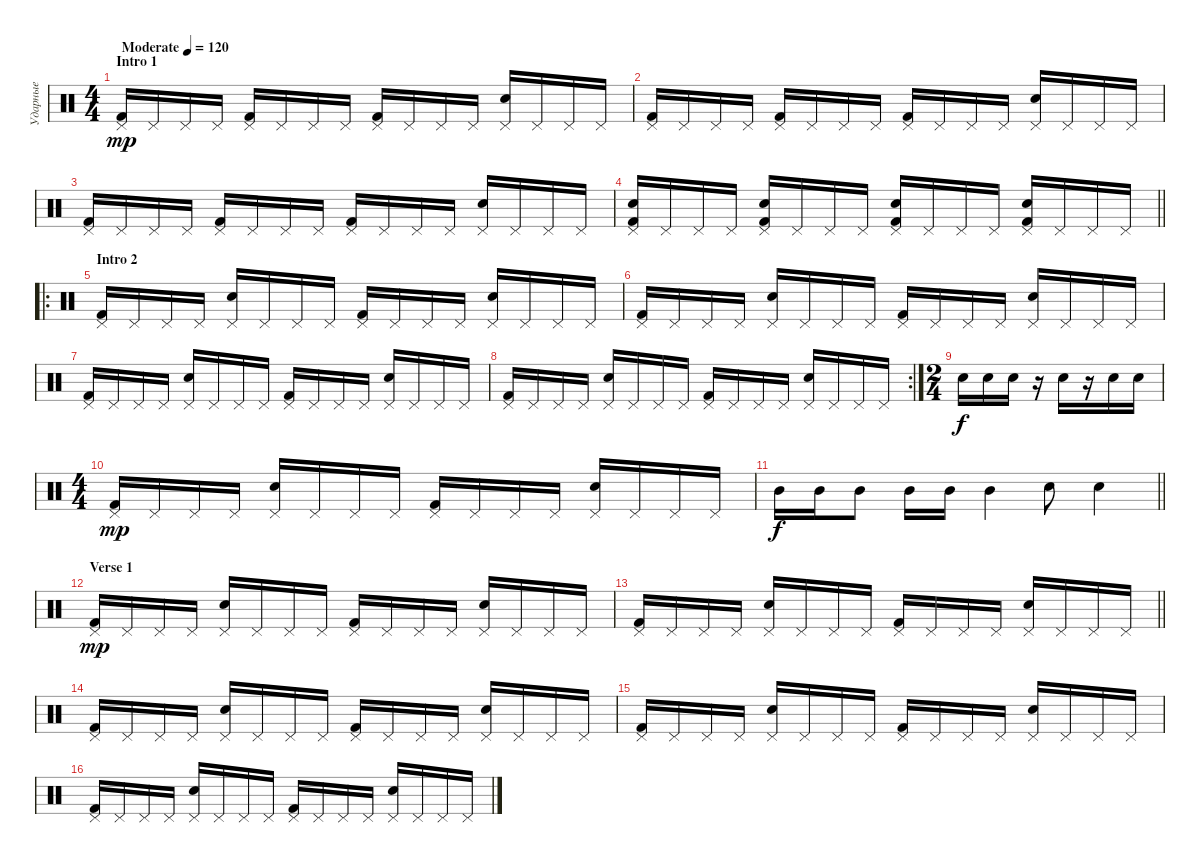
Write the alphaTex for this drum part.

\track ("Ударные" "Ударные") {instrument percussion}
\staff {score}
\articulation defaults
\ts (4 4)
\section ("" "Intro 1")
\tempo (120 "Moderate")
\clef neutral
\ks c
("Pedal Hi-Hat (hit)" "Kick (hit) 2").16{dy mp} "Pedal Hi-Hat (hit)".16 "Pedal Hi-Hat (hit)".16 "Pedal Hi-Hat (hit)".16 ("Pedal Hi-Hat (hit)" "Kick (hit) 2").16 "Pedal Hi-Hat (hit)".16 "Pedal Hi-Hat (hit)".16 "Pedal Hi-Hat (hit)".16 ("Pedal Hi-Hat (hit)" "Kick (hit) 2").16 "Pedal Hi-Hat (hit)".16 "Pedal Hi-Hat (hit)".16 "Pedal Hi-Hat (hit)".16 ("Pedal Hi-Hat (hit)" "Snare (hit) 2").16 "Pedal Hi-Hat (hit)".16 "Pedal Hi-Hat (hit)".16 "Pedal Hi-Hat (hit)".16 |
("Pedal Hi-Hat (hit)" "Kick (hit) 2").16 "Pedal Hi-Hat (hit)".16 "Pedal Hi-Hat (hit)".16 "Pedal Hi-Hat (hit)".16 ("Pedal Hi-Hat (hit)" "Kick (hit) 2").16 "Pedal Hi-Hat (hit)".16 "Pedal Hi-Hat (hit)".16 "Pedal Hi-Hat (hit)".16 ("Pedal Hi-Hat (hit)" "Kick (hit) 2").16 "Pedal Hi-Hat (hit)".16 "Pedal Hi-Hat (hit)".16 "Pedal Hi-Hat (hit)".16 ("Pedal Hi-Hat (hit)" "Snare (hit) 2").16 "Pedal Hi-Hat (hit)".16 "Pedal Hi-Hat (hit)".16 "Pedal Hi-Hat (hit)".16 |
("Pedal Hi-Hat (hit)" "Kick (hit) 2").16 "Pedal Hi-Hat (hit)".16 "Pedal Hi-Hat (hit)".16 "Pedal Hi-Hat (hit)".16 ("Pedal Hi-Hat (hit)" "Kick (hit) 2").16 "Pedal Hi-Hat (hit)".16 "Pedal Hi-Hat (hit)".16 "Pedal Hi-Hat (hit)".16 ("Pedal Hi-Hat (hit)" "Kick (hit) 2").16 "Pedal Hi-Hat (hit)".16 "Pedal Hi-Hat (hit)".16 "Pedal Hi-Hat (hit)".16 ("Pedal Hi-Hat (hit)" "Snare (hit) 2").16 "Pedal Hi-Hat (hit)".16 "Pedal Hi-Hat (hit)".16 "Pedal Hi-Hat (hit)".16 |
\barLineRight lightlight
("Pedal Hi-Hat (hit)" "Snare (hit) 2" "Kick (hit) 2").16 "Pedal Hi-Hat (hit)".16 "Pedal Hi-Hat (hit)".16 "Pedal Hi-Hat (hit)".16 ("Pedal Hi-Hat (hit)" "Snare (hit) 2" "Kick (hit) 2").16 "Pedal Hi-Hat (hit)".16 "Pedal Hi-Hat (hit)".16 "Pedal Hi-Hat (hit)".16 ("Pedal Hi-Hat (hit)" "Snare (hit) 2" "Kick (hit) 2").16 "Pedal Hi-Hat (hit)".16 "Pedal Hi-Hat (hit)".16 "Pedal Hi-Hat (hit)".16 ("Pedal Hi-Hat (hit)" "Snare (hit) 2" "Kick (hit) 2").16 "Pedal Hi-Hat (hit)".16 "Pedal Hi-Hat (hit)".16 "Pedal Hi-Hat (hit)".16 |
\ro
\section ("" "Intro 2")
("Pedal Hi-Hat (hit)" "Kick (hit) 2").16 "Pedal Hi-Hat (hit)".16 "Pedal Hi-Hat (hit)".16 "Pedal Hi-Hat (hit)".16 ("Pedal Hi-Hat (hit)" "Snare (hit) 2").16 "Pedal Hi-Hat (hit)".16 "Pedal Hi-Hat (hit)".16 "Pedal Hi-Hat (hit)".16 ("Pedal Hi-Hat (hit)" "Kick (hit) 2").16 "Pedal Hi-Hat (hit)".16 "Pedal Hi-Hat (hit)".16 "Pedal Hi-Hat (hit)".16 ("Pedal Hi-Hat (hit)" "Snare (hit) 2").16 "Pedal Hi-Hat (hit)".16 "Pedal Hi-Hat (hit)".16 "Pedal Hi-Hat (hit)".16 |
("Pedal Hi-Hat (hit)" "Kick (hit) 2").16 "Pedal Hi-Hat (hit)".16 "Pedal Hi-Hat (hit)".16 "Pedal Hi-Hat (hit)".16 ("Pedal Hi-Hat (hit)" "Snare (hit) 2").16 "Pedal Hi-Hat (hit)".16 "Pedal Hi-Hat (hit)".16 "Pedal Hi-Hat (hit)".16 ("Pedal Hi-Hat (hit)" "Kick (hit) 2").16 "Pedal Hi-Hat (hit)".16 "Pedal Hi-Hat (hit)".16 "Pedal Hi-Hat (hit)".16 ("Pedal Hi-Hat (hit)" "Snare (hit) 2").16 "Pedal Hi-Hat (hit)".16 "Pedal Hi-Hat (hit)".16 "Pedal Hi-Hat (hit)".16 |
("Pedal Hi-Hat (hit)" "Kick (hit) 2").16 "Pedal Hi-Hat (hit)".16 "Pedal Hi-Hat (hit)".16 "Pedal Hi-Hat (hit)".16 ("Pedal Hi-Hat (hit)" "Snare (hit) 2").16 "Pedal Hi-Hat (hit)".16 "Pedal Hi-Hat (hit)".16 "Pedal Hi-Hat (hit)".16 ("Pedal Hi-Hat (hit)" "Kick (hit) 2").16 "Pedal Hi-Hat (hit)".16 "Pedal Hi-Hat (hit)".16 "Pedal Hi-Hat (hit)".16 ("Pedal Hi-Hat (hit)" "Snare (hit) 2").16 "Pedal Hi-Hat (hit)".16 "Pedal Hi-Hat (hit)".16 "Pedal Hi-Hat (hit)".16 |
\rc 2
("Pedal Hi-Hat (hit)" "Kick (hit) 2").16 "Pedal Hi-Hat (hit)".16 "Pedal Hi-Hat (hit)".16 "Pedal Hi-Hat (hit)".16 ("Pedal Hi-Hat (hit)" "Snare (hit) 2").16 "Pedal Hi-Hat (hit)".16 "Pedal Hi-Hat (hit)".16 "Pedal Hi-Hat (hit)".16 ("Pedal Hi-Hat (hit)" "Kick (hit) 2").16 "Pedal Hi-Hat (hit)".16 "Pedal Hi-Hat (hit)".16 "Pedal Hi-Hat (hit)".16 ("Pedal Hi-Hat (hit)" "Snare (hit) 2").16 "Pedal Hi-Hat (hit)".16 "Pedal Hi-Hat (hit)".16 "Pedal Hi-Hat (hit)".16 |
\ts (2 4)
"Snare (hit) 2".16{dy f} "Snare (hit) 2".16 "Snare (hit) 2".16 r.16 "Snare (hit) 2".16 r.16 "Snare (hit) 2".16 "Snare (hit) 2".16 |
\ts (4 4)
("Pedal Hi-Hat (hit)" "Kick (hit) 2").16{dy mp} "Pedal Hi-Hat (hit)".16 "Pedal Hi-Hat (hit)".16 "Pedal Hi-Hat (hit)".16 ("Pedal Hi-Hat (hit)" "Snare (hit) 2").16 "Pedal Hi-Hat (hit)".16 "Pedal Hi-Hat (hit)".16 "Pedal Hi-Hat (hit)".16 ("Pedal Hi-Hat (hit)" "Kick (hit) 2").16 "Pedal Hi-Hat (hit)".16 "Pedal Hi-Hat (hit)".16 "Pedal Hi-Hat (hit)".16 ("Pedal Hi-Hat (hit)" "Snare (hit) 2").16 "Pedal Hi-Hat (hit)".16 "Pedal Hi-Hat (hit)".16 "Pedal Hi-Hat (hit)".16 |
\barLineRight lightlight "Mid Tom (hit)".16{dy f} "Mid Tom (hit)".16 "Mid Tom (hit)".8 "Mid Tom (hit)".16 "Mid Tom (hit)".16 "Mid Tom (hit)".4 "Snare (hit) 2".8 "Snare (hit) 2".4
|
\section ("" "Verse 1")
("Pedal Hi-Hat (hit)" "Kick (hit) 2").16{dy mp} "Pedal Hi-Hat (hit)".16 "Pedal Hi-Hat (hit)".16 "Pedal Hi-Hat (hit)".16 ("Pedal Hi-Hat (hit)" "Snare (hit) 2").16 "Pedal Hi-Hat (hit)".16 "Pedal Hi-Hat (hit)".16 "Pedal Hi-Hat (hit)".16 ("Pedal Hi-Hat (hit)" "Kick (hit) 2").16 "Pedal Hi-Hat (hit)".16 "Pedal Hi-Hat (hit)".16 "Pedal Hi-Hat (hit)".16 ("Pedal Hi-Hat (hit)" "Snare (hit) 2").16 "Pedal Hi-Hat (hit)".16 "Pedal Hi-Hat (hit)".16 "Pedal Hi-Hat (hit)".16 |
\barLineRight lightlight
("Pedal Hi-Hat (hit)" "Kick (hit) 2").16 "Pedal Hi-Hat (hit)".16 "Pedal Hi-Hat (hit)".16 "Pedal Hi-Hat (hit)".16 ("Pedal Hi-Hat (hit)" "Snare (hit) 2").16 "Pedal Hi-Hat (hit)".16 "Pedal Hi-Hat (hit)".16 "Pedal Hi-Hat (hit)".16 ("Pedal Hi-Hat (hit)" "Kick (hit) 2").16 "Pedal Hi-Hat (hit)".16 "Pedal Hi-Hat (hit)".16 "Pedal Hi-Hat (hit)".16 ("Pedal Hi-Hat (hit)" "Snare (hit) 2").16 "Pedal Hi-Hat (hit)".16 "Pedal Hi-Hat (hit)".16 "Pedal Hi-Hat (hit)".16 |
("Pedal Hi-Hat (hit)" "Kick (hit) 2").16 "Pedal Hi-Hat (hit)".16 "Pedal Hi-Hat (hit)".16 "Pedal Hi-Hat (hit)".16 ("Pedal Hi-Hat (hit)" "Snare (hit) 2").16 "Pedal Hi-Hat (hit)".16 "Pedal Hi-Hat (hit)".16 "Pedal Hi-Hat (hit)".16 ("Pedal Hi-Hat (hit)" "Kick (hit) 2").16 "Pedal Hi-Hat (hit)".16 "Pedal Hi-Hat (hit)".16 "Pedal Hi-Hat (hit)".16 ("Pedal Hi-Hat (hit)" "Snare (hit) 2").16 "Pedal Hi-Hat (hit)".16 "Pedal Hi-Hat (hit)".16 "Pedal Hi-Hat (hit)".16 |
("Pedal Hi-Hat (hit)" "Kick (hit) 2").16 "Pedal Hi-Hat (hit)".16 "Pedal Hi-Hat (hit)".16 "Pedal Hi-Hat (hit)".16 ("Pedal Hi-Hat (hit)" "Snare (hit) 2").16 "Pedal Hi-Hat (hit)".16 "Pedal Hi-Hat (hit)".16 "Pedal Hi-Hat (hit)".16 ("Pedal Hi-Hat (hit)" "Kick (hit) 2").16 "Pedal Hi-Hat (hit)".16 "Pedal Hi-Hat (hit)".16 "Pedal Hi-Hat (hit)".16 ("Pedal Hi-Hat (hit)" "Snare (hit) 2").16 "Pedal Hi-Hat (hit)".16 "Pedal Hi-Hat (hit)".16 "Pedal Hi-Hat (hit)".16 |
("Pedal Hi-Hat (hit)" "Kick (hit) 2").16 "Pedal Hi-Hat (hit)".16 "Pedal Hi-Hat (hit)".16 "Pedal Hi-Hat (hit)".16 ("Pedal Hi-Hat (hit)" "Snare (hit) 2").16 "Pedal Hi-Hat (hit)".16 "Pedal Hi-Hat (hit)".16 "Pedal Hi-Hat (hit)".16 ("Pedal Hi-Hat (hit)" "Kick (hit) 2").16 "Pedal Hi-Hat (hit)".16 "Pedal Hi-Hat (hit)".16 "Pedal Hi-Hat (hit)".16 ("Pedal Hi-Hat (hit)" "Snare (hit) 2").16 "Pedal Hi-Hat (hit)".16 "Pedal Hi-Hat (hit)".16 "Pedal Hi-Hat (hit)".16
